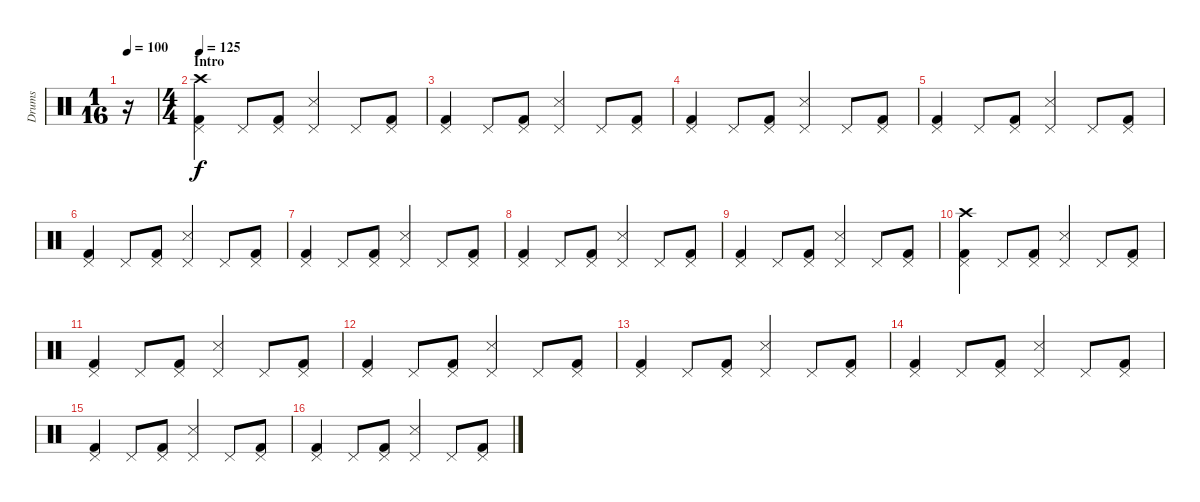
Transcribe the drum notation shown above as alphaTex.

\track ("Drums" "Drums") {instrument percussion}
\staff {score}
\articulation defaults
\ts (1 16)
\tempo 100
\clef neutral
\ks c
r.16{dy f} |
\ts (4 4)
\section ("" "Intro")
\tempo 125
("Kick (hit) 2" "Pedal Hi-Hat (hit)" "Crash high (hit)").4 "Pedal Hi-Hat (hit)".8 ("Kick (hit) 2" "Pedal Hi-Hat (hit)").8 ("Snare (side stick) 3" "Pedal Hi-Hat (hit)").4 "Pedal Hi-Hat (hit)".8 ("Kick (hit) 2" "Pedal Hi-Hat (hit)").8 |
("Kick (hit) 2" "Pedal Hi-Hat (hit)").4 "Pedal Hi-Hat (hit)".8 ("Kick (hit) 2" "Pedal Hi-Hat (hit)").8 ("Snare (side stick) 3" "Pedal Hi-Hat (hit)").4 "Pedal Hi-Hat (hit)".8 ("Kick (hit) 2" "Pedal Hi-Hat (hit)").8 |
("Kick (hit) 2" "Pedal Hi-Hat (hit)").4 "Pedal Hi-Hat (hit)".8 ("Kick (hit) 2" "Pedal Hi-Hat (hit)").8 ("Snare (side stick) 3" "Pedal Hi-Hat (hit)").4 "Pedal Hi-Hat (hit)".8 ("Kick (hit) 2" "Pedal Hi-Hat (hit)").8 |
("Kick (hit) 2" "Pedal Hi-Hat (hit)").4 "Pedal Hi-Hat (hit)".8 ("Kick (hit) 2" "Pedal Hi-Hat (hit)").8 ("Snare (side stick) 3" "Pedal Hi-Hat (hit)").4 "Pedal Hi-Hat (hit)".8 ("Kick (hit) 2" "Pedal Hi-Hat (hit)").8 |
("Kick (hit) 2" "Pedal Hi-Hat (hit)").4 "Pedal Hi-Hat (hit)".8 ("Kick (hit) 2" "Pedal Hi-Hat (hit)").8 ("Snare (side stick) 3" "Pedal Hi-Hat (hit)").4 "Pedal Hi-Hat (hit)".8 ("Kick (hit) 2" "Pedal Hi-Hat (hit)").8 |
("Kick (hit) 2" "Pedal Hi-Hat (hit)").4 "Pedal Hi-Hat (hit)".8 ("Kick (hit) 2" "Pedal Hi-Hat (hit)").8 ("Snare (side stick) 3" "Pedal Hi-Hat (hit)").4 "Pedal Hi-Hat (hit)".8 ("Kick (hit) 2" "Pedal Hi-Hat (hit)").8 |
("Kick (hit) 2" "Pedal Hi-Hat (hit)").4 "Pedal Hi-Hat (hit)".8 ("Kick (hit) 2" "Pedal Hi-Hat (hit)").8 ("Snare (side stick) 3" "Pedal Hi-Hat (hit)").4 "Pedal Hi-Hat (hit)".8 ("Kick (hit) 2" "Pedal Hi-Hat (hit)").8 |
("Kick (hit) 2" "Pedal Hi-Hat (hit)").4 "Pedal Hi-Hat (hit)".8 ("Kick (hit) 2" "Pedal Hi-Hat (hit)").8 ("Snare (side stick) 3" "Pedal Hi-Hat (hit)").4 "Pedal Hi-Hat (hit)".8 ("Kick (hit) 2" "Pedal Hi-Hat (hit)").8 |
("Kick (hit) 2" "Pedal Hi-Hat (hit)" "Crash high (hit)").4 "Pedal Hi-Hat (hit)".8 ("Kick (hit) 2" "Pedal Hi-Hat (hit)").8 ("Snare (side stick) 3" "Pedal Hi-Hat (hit)").4 "Pedal Hi-Hat (hit)".8 ("Kick (hit) 2" "Pedal Hi-Hat (hit)").8 |
("Kick (hit) 2" "Pedal Hi-Hat (hit)").4 "Pedal Hi-Hat (hit)".8 ("Kick (hit) 2" "Pedal Hi-Hat (hit)").8 ("Snare (side stick) 3" "Pedal Hi-Hat (hit)").4 "Pedal Hi-Hat (hit)".8 ("Kick (hit) 2" "Pedal Hi-Hat (hit)").8 |
("Kick (hit) 2" "Pedal Hi-Hat (hit)").4 "Pedal Hi-Hat (hit)".8 ("Kick (hit) 2" "Pedal Hi-Hat (hit)").8 ("Snare (side stick) 3" "Pedal Hi-Hat (hit)").4 "Pedal Hi-Hat (hit)".8 ("Kick (hit) 2" "Pedal Hi-Hat (hit)").8 |
("Kick (hit) 2" "Pedal Hi-Hat (hit)").4 "Pedal Hi-Hat (hit)".8 ("Kick (hit) 2" "Pedal Hi-Hat (hit)").8 ("Snare (side stick) 3" "Pedal Hi-Hat (hit)").4 "Pedal Hi-Hat (hit)".8 ("Kick (hit) 2" "Pedal Hi-Hat (hit)").8 |
("Kick (hit) 2" "Pedal Hi-Hat (hit)").4 "Pedal Hi-Hat (hit)".8 ("Kick (hit) 2" "Pedal Hi-Hat (hit)").8 ("Snare (side stick) 3" "Pedal Hi-Hat (hit)").4 "Pedal Hi-Hat (hit)".8 ("Kick (hit) 2" "Pedal Hi-Hat (hit)").8 |
("Kick (hit) 2" "Pedal Hi-Hat (hit)").4 "Pedal Hi-Hat (hit)".8 ("Kick (hit) 2" "Pedal Hi-Hat (hit)").8 ("Snare (side stick) 3" "Pedal Hi-Hat (hit)").4 "Pedal Hi-Hat (hit)".8 ("Kick (hit) 2" "Pedal Hi-Hat (hit)").8 |
("Kick (hit) 2" "Pedal Hi-Hat (hit)").4 "Pedal Hi-Hat (hit)".8 ("Kick (hit) 2" "Pedal Hi-Hat (hit)").8 ("Snare (side stick) 3" "Pedal Hi-Hat (hit)").4 "Pedal Hi-Hat (hit)".8 ("Kick (hit) 2" "Pedal Hi-Hat (hit)").8
